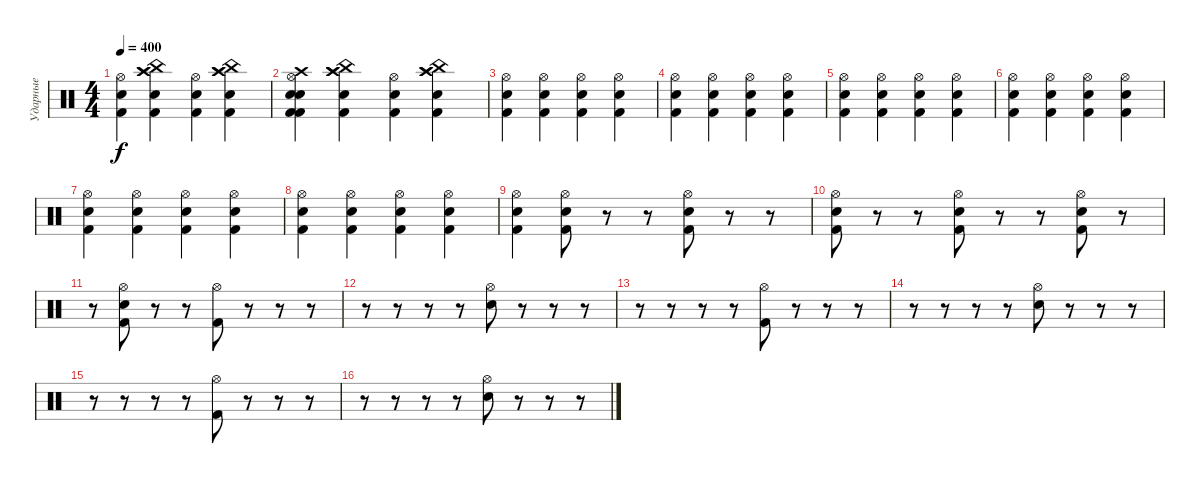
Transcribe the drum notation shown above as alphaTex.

\track ("Ударные" "Ударные") {instrument percussion}
\staff {score}
\articulation defaults
\ts (4 4)
\tempo 400
\clef neutral
\ks c
("Hi-Hat (open)" "Kick (hit) 2" "Electric Snare (hit)").4{dy f} ("Electric Snare (hit)" "Kick (hit) 2" "Crash high (hit)" "Crash high (hit)" "China (hit)").4 ("Hi-Hat (open)" "Kick (hit) 2" "Electric Snare (hit)").4 ("Crash high (hit)" "Kick (hit) 2" "Electric Snare (hit)" "China (hit)" "Crash high (hit)").4 |
("Crash high (hit)" "Kick (hit) 2" "Electric Snare (hit)" "Electric Snare (hit)" "Kick (hit) 2" "Hi-Hat (open)").4 ("Electric Snare (hit)" "Kick (hit) 2" "Crash high (hit)" "Crash high (hit)" "China (hit)").4 ("Hi-Hat (open)" "Kick (hit) 2" "Electric Snare (hit)").4 ("Crash high (hit)" "Kick (hit) 2" "Electric Snare (hit)" "China (hit)" "Crash high (hit)").4 |
("Electric Snare (hit)" "Kick (hit) 2" "Hi-Hat (open)").4 ("Kick (hit) 2" "Electric Snare (hit)" "Hi-Hat (open)").4 ("Hi-Hat (open)" "Kick (hit) 2" "Electric Snare (hit)").4 ("Electric Snare (hit)" "Kick (hit) 2" "Hi-Hat (open)").4 |
("Electric Snare (hit)" "Kick (hit) 2" "Hi-Hat (open)").4 ("Kick (hit) 2" "Electric Snare (hit)" "Hi-Hat (open)").4 ("Hi-Hat (open)" "Kick (hit) 2" "Electric Snare (hit)").4 ("Electric Snare (hit)" "Kick (hit) 2" "Hi-Hat (open)").4 |
("Electric Snare (hit)" "Kick (hit) 2" "Hi-Hat (open)").4 ("Kick (hit) 2" "Electric Snare (hit)" "Hi-Hat (open)").4 ("Hi-Hat (open)" "Kick (hit) 2" "Electric Snare (hit)").4 ("Electric Snare (hit)" "Kick (hit) 2" "Hi-Hat (open)").4 |
("Electric Snare (hit)" "Kick (hit) 2" "Hi-Hat (open)").4 ("Kick (hit) 2" "Electric Snare (hit)" "Hi-Hat (open)").4 ("Hi-Hat (open)" "Kick (hit) 2" "Electric Snare (hit)").4 ("Electric Snare (hit)" "Kick (hit) 2" "Hi-Hat (open)").4 |
("Electric Snare (hit)" "Kick (hit) 2" "Hi-Hat (open)").4 ("Kick (hit) 2" "Electric Snare (hit)" "Hi-Hat (open)").4 ("Hi-Hat (open)" "Kick (hit) 2" "Electric Snare (hit)").4 ("Electric Snare (hit)" "Kick (hit) 2" "Hi-Hat (open)").4 |
("Electric Snare (hit)" "Kick (hit) 2" "Hi-Hat (open)").4 ("Kick (hit) 2" "Electric Snare (hit)" "Hi-Hat (open)").4 ("Hi-Hat (open)" "Kick (hit) 2" "Electric Snare (hit)").4 ("Electric Snare (hit)" "Kick (hit) 2" "Hi-Hat (open)").4 |
("Hi-Hat (open)" "Kick (hit) 2" "Electric Snare (hit)").4 ("Kick (hit) 2" "Electric Snare (hit)" "Hi-Hat (open)").8 r.8 r.8 ("Hi-Hat (open)" "Kick (hit) 2" "Electric Snare (hit)").8 r.8 r.8 |
("Electric Snare (hit)" "Kick (hit) 2" "Hi-Hat (open)").8 r.8 r.8 ("Hi-Hat (open)" "Kick (hit) 2" "Electric Snare (hit)").8 r.8 r.8 ("Electric Snare (hit)" "Kick (hit) 2" "Hi-Hat (open)").8 r.8 |
r.8 ("Hi-Hat (open)" "Kick (hit) 2" "Electric Snare (hit)").8 r.8 r.8 ("Kick (hit) 2" "Hi-Hat (open)").8 r.8 r.8 r.8 |
r.8 r.8 r.8 r.8 ("Electric Snare (hit)" "Hi-Hat (open)").8 r.8 r.8 r.8 |
r.8 r.8 r.8 r.8 ("Kick (hit) 2" "Hi-Hat (open)").8 r.8 r.8 r.8 |
r.8 r.8 r.8 r.8 ("Electric Snare (hit)" "Hi-Hat (open)").8 r.8 r.8 r.8 |
r.8 r.8 r.8 r.8 ("Kick (hit) 2" "Hi-Hat (open)").8 r.8 r.8 r.8 |
r.8 r.8 r.8 r.8 ("Electric Snare (hit)" "Hi-Hat (open)").8 r.8 r.8 r.8
